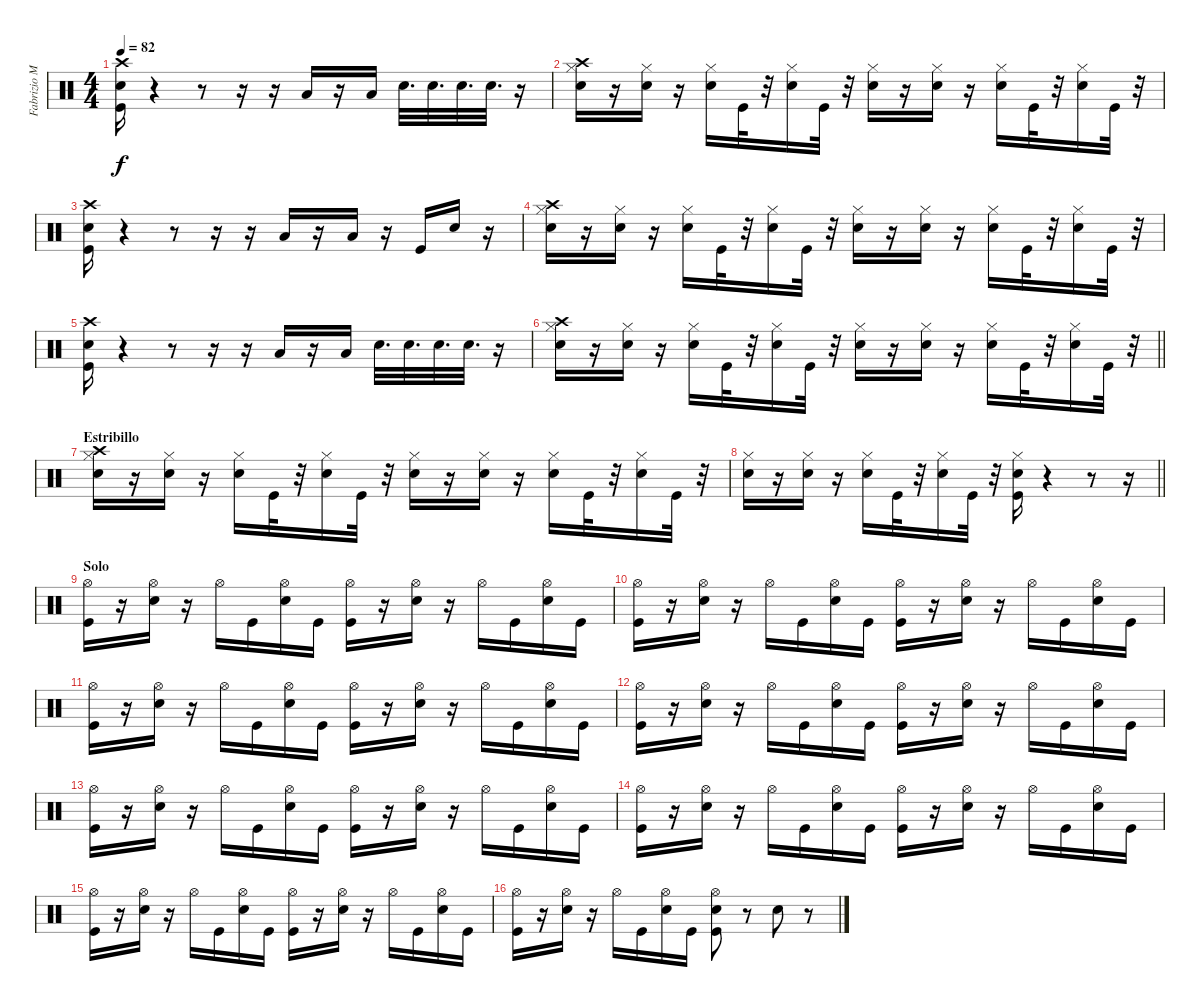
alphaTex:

\track ("Fabrizio Moretti" "Fabrizio M") {instrument percussion}
\staff {score}
\articulation defaults
\ts (4 4)
\tempo 82
\clef neutral
\ks c
("Snare (hit) 2" "Kick (hit)" "Crash high (hit)").16{dy f} r.4 r.8 r.16 r.16 "Low Tom (hit)".16 r.16 "Low Floor Tom (hit)".16 "Snare (hit) 2".32{d} "Snare (hit) 2".32{d} "Snare (hit) 2".32{d} "Snare (hit) 2".32{d} r.16 |
("Snare (hit) 2" "Crash high (hit)" "Hi-Hat (closed)").16 r.16 ("Snare (hit) 2" "Hi-Hat (closed)").16 r.16 ("Snare (hit) 2" "Hi-Hat (closed)").16 "Kick (hit)".32 r.32 ("Snare (hit) 2" "Hi-Hat (closed)").16 "Kick (hit)".32 r.32 ("Snare (hit) 2" "Hi-Hat (closed)").16 r.16 ("Snare (hit) 2" "Hi-Hat (closed)").16 r.16 ("Snare (hit) 2" "Hi-Hat (closed)").16 "Kick (hit)".32 r.32 ("Snare (hit) 2" "Hi-Hat (closed)").16 "Kick (hit)".32 r.32 |
("Snare (hit) 2" "Kick (hit)" "Crash high (hit)").16 r.4 r.8 r.16 r.16 "Low Tom (hit)".16 r.16 "Low Floor Tom (hit)".16 r.16 "Kick (hit)".16 "Snare (hit) 2".16 r.16 |
("Snare (hit) 2" "Crash high (hit)" "Hi-Hat (closed)").16 r.16 ("Snare (hit) 2" "Hi-Hat (closed)").16 r.16 ("Snare (hit) 2" "Hi-Hat (closed)").16 "Kick (hit)".32 r.32 ("Snare (hit) 2" "Hi-Hat (closed)").16 "Kick (hit)".32 r.32 ("Snare (hit) 2" "Hi-Hat (closed)").16 r.16 ("Snare (hit) 2" "Hi-Hat (closed)").16 r.16 ("Snare (hit) 2" "Hi-Hat (closed)").16 "Kick (hit)".32 r.32 ("Snare (hit) 2" "Hi-Hat (closed)").16 "Kick (hit)".32 r.32 |
("Snare (hit) 2" "Kick (hit)" "Crash high (hit)").16 r.4 r.8 r.16 r.16 "Low Tom (hit)".16 r.16 "Low Floor Tom (hit)".16 "Snare (hit) 2".32{d} "Snare (hit) 2".32{d} "Snare (hit) 2".32{d} "Snare (hit) 2".32{d} r.16 |
\barLineRight lightlight
("Snare (hit) 2" "Crash high (hit)" "Hi-Hat (closed)").16 r.16 ("Snare (hit) 2" "Hi-Hat (closed)").16 r.16 ("Snare (hit) 2" "Hi-Hat (closed)").16 "Kick (hit)".32 r.32 ("Snare (hit) 2" "Hi-Hat (closed)").16 "Kick (hit)".32 r.32 ("Snare (hit) 2" "Hi-Hat (closed)").16 r.16 ("Snare (hit) 2" "Hi-Hat (closed)").16 r.16 ("Snare (hit) 2" "Hi-Hat (closed)").16 "Kick (hit)".32 r.32 ("Snare (hit) 2" "Hi-Hat (closed)").16 "Kick (hit)".32 r.32 |
\section ("" "Estribillo")
("Snare (hit) 2" "Crash high (hit)" "Hi-Hat (closed)").16 r.16 ("Snare (hit) 2" "Hi-Hat (closed)").16 r.16 ("Snare (hit) 2" "Hi-Hat (closed)").16 "Kick (hit)".32 r.32 ("Snare (hit) 2" "Hi-Hat (closed)").16 "Kick (hit)".32 r.32 ("Snare (hit) 2" "Hi-Hat (closed)").16 r.16 ("Snare (hit) 2" "Hi-Hat (closed)").16 r.16 ("Snare (hit) 2" "Hi-Hat (closed)").16 "Kick (hit)".32 r.32 ("Snare (hit) 2" "Hi-Hat (closed)").16 "Kick (hit)".32 r.32 |
\barLineRight lightlight
("Snare (hit) 2" "Hi-Hat (closed)").16 r.16 ("Snare (hit) 2" "Hi-Hat (closed)").16 r.16 ("Snare (hit) 2" "Hi-Hat (closed)").16 "Kick (hit)".32 r.32 ("Snare (hit) 2" "Hi-Hat (closed)").16 "Kick (hit)".32 r.32 ("Snare (hit) 2" "Kick (hit)" "Hi-Hat (closed)").16 r.4 r.8 r.16 |
\section ("" "Solo")
("Hi-Hat (open)" "Kick (hit)").16 r.16 ("Hi-Hat (open)" "Snare (hit) 2").16 r.16 "Hi-Hat (open)".16 "Kick (hit)".16 ("Hi-Hat (open)" "Snare (hit) 2").16 "Kick (hit)".16 ("Hi-Hat (open)" "Kick (hit)").16 r.16 ("Hi-Hat (open)" "Snare (hit) 2").16 r.16 "Hi-Hat (open)".16 "Kick (hit)".16 ("Hi-Hat (open)" "Snare (hit) 2").16 "Kick (hit)".16 |
("Hi-Hat (open)" "Kick (hit)").16 r.16 ("Hi-Hat (open)" "Snare (hit) 2").16 r.16 "Hi-Hat (open)".16 "Kick (hit)".16 ("Hi-Hat (open)" "Snare (hit) 2").16 "Kick (hit)".16 ("Hi-Hat (open)" "Kick (hit)").16 r.16 ("Hi-Hat (open)" "Snare (hit) 2").16 r.16 "Hi-Hat (open)".16 "Kick (hit)".16 ("Hi-Hat (open)" "Snare (hit) 2").16 "Kick (hit)".16 |
("Hi-Hat (open)" "Kick (hit)").16 r.16 ("Hi-Hat (open)" "Snare (hit) 2").16 r.16 "Hi-Hat (open)".16 "Kick (hit)".16 ("Hi-Hat (open)" "Snare (hit) 2").16 "Kick (hit)".16 ("Hi-Hat (open)" "Kick (hit)").16 r.16 ("Hi-Hat (open)" "Snare (hit) 2").16 r.16 "Hi-Hat (open)".16 "Kick (hit)".16 ("Hi-Hat (open)" "Snare (hit) 2").16 "Kick (hit)".16 |
("Hi-Hat (open)" "Kick (hit)").16 r.16 ("Hi-Hat (open)" "Snare (hit) 2").16 r.16 "Hi-Hat (open)".16 "Kick (hit)".16 ("Hi-Hat (open)" "Snare (hit) 2").16 "Kick (hit)".16 ("Hi-Hat (open)" "Kick (hit)").16 r.16 ("Hi-Hat (open)" "Snare (hit) 2").16 r.16 "Hi-Hat (open)".16 "Kick (hit)".16 ("Hi-Hat (open)" "Snare (hit) 2").16 "Kick (hit)".16 |
("Hi-Hat (open)" "Kick (hit)").16 r.16 ("Hi-Hat (open)" "Snare (hit) 2").16 r.16 "Hi-Hat (open)".16 "Kick (hit)".16 ("Hi-Hat (open)" "Snare (hit) 2").16 "Kick (hit)".16 ("Hi-Hat (open)" "Kick (hit)").16 r.16 ("Hi-Hat (open)" "Snare (hit) 2").16 r.16 "Hi-Hat (open)".16 "Kick (hit)".16 ("Hi-Hat (open)" "Snare (hit) 2").16 "Kick (hit)".16 |
("Hi-Hat (open)" "Kick (hit)").16 r.16 ("Hi-Hat (open)" "Snare (hit) 2").16 r.16 "Hi-Hat (open)".16 "Kick (hit)".16 ("Hi-Hat (open)" "Snare (hit) 2").16 "Kick (hit)".16 ("Hi-Hat (open)" "Kick (hit)").16 r.16 ("Hi-Hat (open)" "Snare (hit) 2").16 r.16 "Hi-Hat (open)".16 "Kick (hit)".16 ("Hi-Hat (open)" "Snare (hit) 2").16 "Kick (hit)".16 |
("Hi-Hat (open)" "Kick (hit)").16 r.16 ("Hi-Hat (open)" "Snare (hit) 2").16 r.16 "Hi-Hat (open)".16 "Kick (hit)".16 ("Hi-Hat (open)" "Snare (hit) 2").16 "Kick (hit)".16 ("Hi-Hat (open)" "Kick (hit)").16 r.16 ("Hi-Hat (open)" "Snare (hit) 2").16 r.16 "Hi-Hat (open)".16 "Kick (hit)".16 ("Hi-Hat (open)" "Snare (hit) 2").16 "Kick (hit)".16 |
("Hi-Hat (open)" "Kick (hit)").16 r.16 ("Hi-Hat (open)" "Snare (hit) 2").16 r.16 "Hi-Hat (open)".16 "Kick (hit)".16 ("Hi-Hat (open)" "Snare (hit) 2").16 "Kick (hit)".16 ("Hi-Hat (open)" "Kick (hit)" "Snare (hit) 2").8 r.8 "Snare (hit) 2".8 r.8
